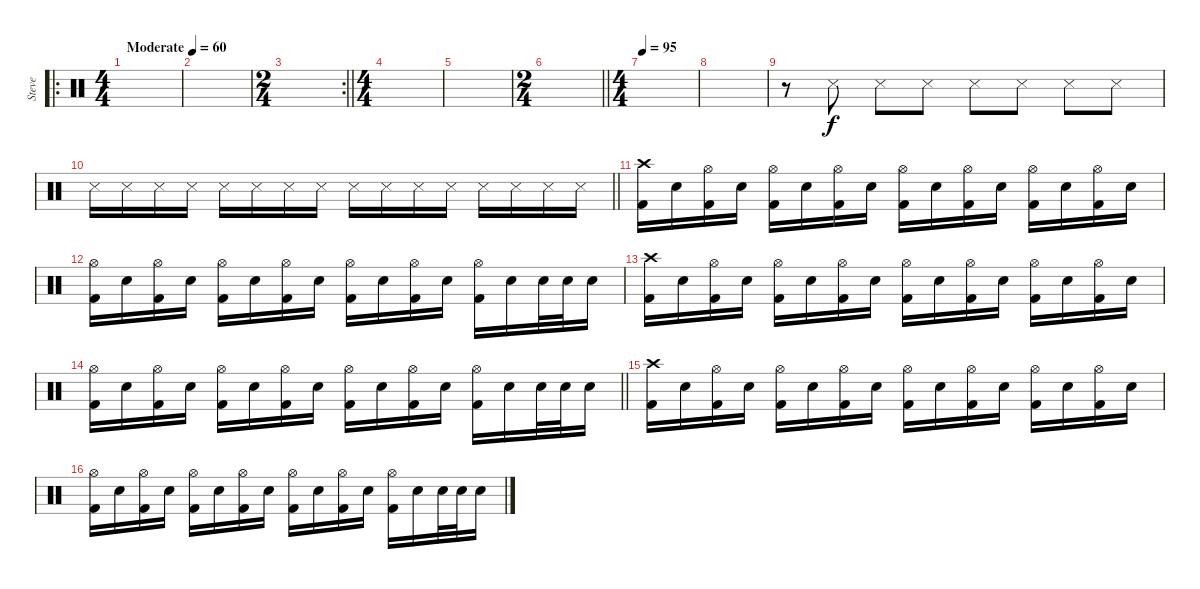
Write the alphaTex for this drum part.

\track ("Steve" "Steve") {instrument percussion}
\staff {score}
\articulation defaults
\ro
\ts (4 4)
\tempo (60 "Moderate")
\clef neutral
\ks c
|
|
\rc 2
\ts (2 4)
\barLineRight lightlight
|
\ts (4 4)
|
|
\ts (2 4)
\barLineRight lightlight
|
\ts (4 4)
\tempo 95
|
|
r.8 "Metronome (hit)".8 "Metronome (hit)".8 "Metronome (hit)".8 "Metronome (hit)".8 "Metronome (hit)".8 "Metronome (hit)".8 "Metronome (hit)".8 |
\barLineRight lightlight "Metronome (hit)".16 "Metronome (hit)".16 "Metronome (hit)".16 "Metronome (hit)".16 "Metronome (hit)".16 "Metronome (hit)".16 "Metronome (hit)".16 "Metronome (hit)".16 "Metronome (hit)".16 "Metronome (hit)".16 "Metronome (hit)".16 "Metronome (hit)".16 "Metronome (hit)".16 "Metronome (hit)".16 "Metronome (hit)".16 "Metronome (hit)".16
|
("Kick (hit) 2" "Crash high (hit)").16 "Snare (hit) 2".16 ("Kick (hit) 2" "Hi-Hat (open)").16 "Snare (hit) 2".16 ("Kick (hit) 2" "Hi-Hat (open)").16 "Snare (hit) 2".16 ("Kick (hit) 2" "Hi-Hat (open)").16 "Snare (hit) 2".16 ("Kick (hit) 2" "Hi-Hat (open)").16 "Snare (hit) 2".16 ("Kick (hit) 2" "Hi-Hat (open)").16 "Snare (hit) 2".16 ("Kick (hit) 2" "Hi-Hat (open)").16 "Snare (hit) 2".16 ("Kick (hit) 2" "Hi-Hat (open)").16 "Snare (hit) 2".16 |
("Kick (hit) 2" "Hi-Hat (open)").16 "Snare (hit) 2".16 ("Kick (hit) 2" "Hi-Hat (open)").16 "Snare (hit) 2".16 ("Kick (hit) 2" "Hi-Hat (open)").16 "Snare (hit) 2".16 ("Kick (hit) 2" "Hi-Hat (open)").16 "Snare (hit) 2".16 ("Kick (hit) 2" "Hi-Hat (open)").16 "Snare (hit) 2".16 ("Kick (hit) 2" "Hi-Hat (open)").16 "Snare (hit) 2".16 ("Kick (hit) 2" "Hi-Hat (open)").16 "Snare (hit) 2".16 "Snare (hit) 2".32 "Snare (hit) 2".32 "Snare (hit) 2".16 |
("Kick (hit) 2" "Crash high (hit)").16 "Snare (hit) 2".16 ("Kick (hit) 2" "Hi-Hat (open)").16 "Snare (hit) 2".16 ("Kick (hit) 2" "Hi-Hat (open)").16 "Snare (hit) 2".16 ("Kick (hit) 2" "Hi-Hat (open)").16 "Snare (hit) 2".16 ("Kick (hit) 2" "Hi-Hat (open)").16 "Snare (hit) 2".16 ("Kick (hit) 2" "Hi-Hat (open)").16 "Snare (hit) 2".16 ("Kick (hit) 2" "Hi-Hat (open)").16 "Snare (hit) 2".16 ("Kick (hit) 2" "Hi-Hat (open)").16 "Snare (hit) 2".16 |
\barLineRight lightlight
("Kick (hit) 2" "Hi-Hat (open)").16 "Snare (hit) 2".16 ("Kick (hit) 2" "Hi-Hat (open)").16 "Snare (hit) 2".16 ("Kick (hit) 2" "Hi-Hat (open)").16 "Snare (hit) 2".16 ("Kick (hit) 2" "Hi-Hat (open)").16 "Snare (hit) 2".16 ("Kick (hit) 2" "Hi-Hat (open)").16 "Snare (hit) 2".16 ("Kick (hit) 2" "Hi-Hat (open)").16 "Snare (hit) 2".16 ("Kick (hit) 2" "Hi-Hat (open)").16 "Snare (hit) 2".16 "Snare (hit) 2".32 "Snare (hit) 2".32 "Snare (hit) 2".16 |
("Kick (hit) 2" "Crash high (hit)").16 "Snare (hit) 2".16 ("Kick (hit) 2" "Hi-Hat (open)").16 "Snare (hit) 2".16 ("Kick (hit) 2" "Hi-Hat (open)").16 "Snare (hit) 2".16 ("Kick (hit) 2" "Hi-Hat (open)").16 "Snare (hit) 2".16 ("Kick (hit) 2" "Hi-Hat (open)").16 "Snare (hit) 2".16 ("Kick (hit) 2" "Hi-Hat (open)").16 "Snare (hit) 2".16 ("Kick (hit) 2" "Hi-Hat (open)").16 "Snare (hit) 2".16 ("Kick (hit) 2" "Hi-Hat (open)").16 "Snare (hit) 2".16 |
("Kick (hit) 2" "Hi-Hat (open)").16 "Snare (hit) 2".16 ("Kick (hit) 2" "Hi-Hat (open)").16 "Snare (hit) 2".16 ("Kick (hit) 2" "Hi-Hat (open)").16 "Snare (hit) 2".16 ("Kick (hit) 2" "Hi-Hat (open)").16 "Snare (hit) 2".16 ("Kick (hit) 2" "Hi-Hat (open)").16 "Snare (hit) 2".16 ("Kick (hit) 2" "Hi-Hat (open)").16 "Snare (hit) 2".16 ("Kick (hit) 2" "Hi-Hat (open)").16 "Snare (hit) 2".16 "Snare (hit) 2".32 "Snare (hit) 2".32 "Snare (hit) 2".16
